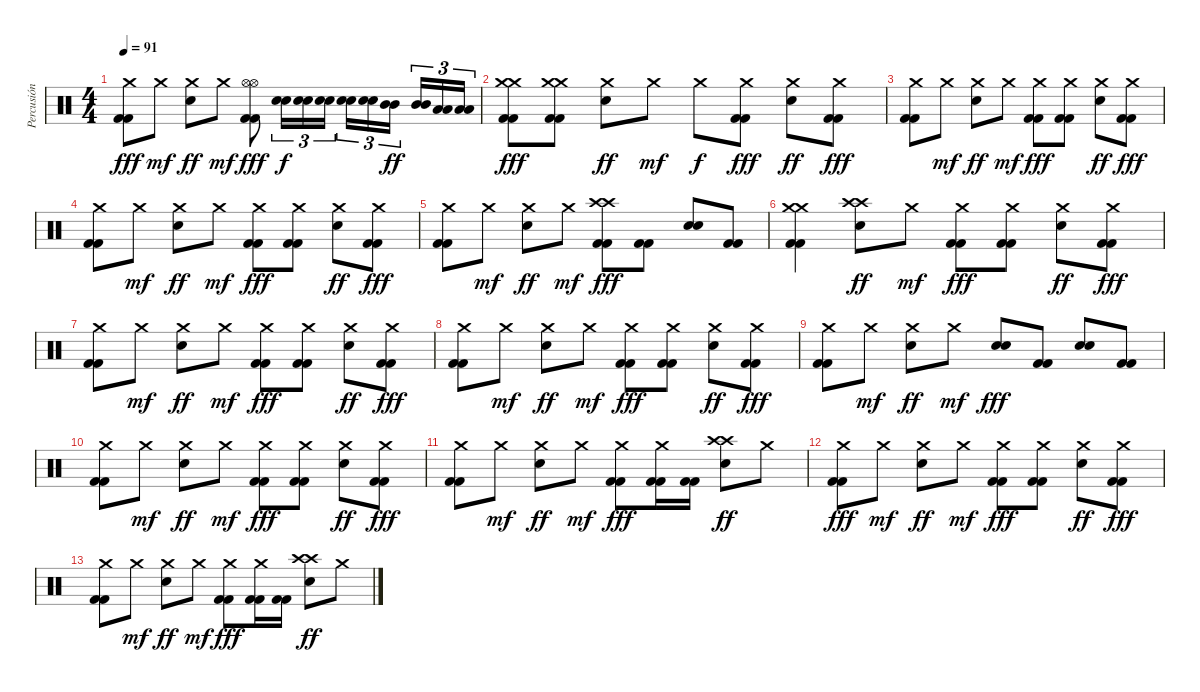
\track ("Percusión" "Percusión") {instrument percussion}
\staff {score}
\articulation defaults
\ts (4 4)
\tempo 91
\clef neutral
\ks c
("Crash medium (hit)" "Kick (hit) 2" "Kick (hit) 2").8{dy fff} "Crash medium (hit)".8{dy mf} ("Crash medium (hit)" "Electric Snare (hit)").8{dy ff} "Crash medium (hit)".8{dy mf} ("Hi-Hat (open)" "Hi-Hat (open)" "Kick (hit) 2" "Kick (hit) 2").8{dy fff} ("Electric Snare (hit)" "Electric Snare (hit)").16{tu (3 2) dy f} ("Electric Snare (hit)" "Electric Snare (hit)").16{tu (3 2)} ("Electric Snare (hit)" "Electric Snare (hit)").16{tu (3 2)} ("Electric Snare (hit)" "Electric Snare (hit)").16{tu (3 2)} ("Electric Snare (hit)" "Electric Snare (hit)").16{tu (3 2)} ("Mid Tom (hit)" "Mid Tom (hit)").16{tu (3 2) dy ff beam splitsecondary} ("Mid Tom (hit)" "Mid Tom (hit)").16{tu (3 2)} ("Low Tom (hit)" "Low Tom (hit)").16{tu (3 2)} ("Low Tom (hit)" "Low Tom (hit)").16{tu (3 2)} |
("Crash medium (hit)" "Crash medium (hit)" "Kick (hit) 2" "Kick (hit) 2").8{dy fff} ("Crash medium (hit)" "Crash medium (hit)" "Kick (hit) 2" "Kick (hit) 2").8 ("Crash medium (hit)" "Electric Snare (hit)").8{dy ff} "Crash medium (hit)".8{dy mf} "Crash medium (hit)".8{dy f} ("Crash medium (hit)" "Kick (hit) 2" "Kick (hit) 2").8{dy fff} ("Crash medium (hit)" "Electric Snare (hit)").8{dy ff} ("Crash medium (hit)" "Kick (hit) 2" "Kick (hit) 2").8{dy fff} |
("Crash medium (hit)" "Kick (hit) 2" "Kick (hit) 2").8 "Crash medium (hit)".8{dy mf} ("Crash medium (hit)" "Electric Snare (hit)").8{dy ff} "Crash medium (hit)".8{dy mf} ("Crash medium (hit)" "Kick (hit) 2" "Kick (hit) 2").8{dy fff} ("Crash medium (hit)" "Kick (hit) 2" "Kick (hit) 2").8 ("Crash medium (hit)" "Electric Snare (hit)").8{dy ff} ("Crash medium (hit)" "Kick (hit) 2" "Kick (hit) 2").8{dy fff} |
("Crash medium (hit)" "Kick (hit) 2" "Kick (hit) 2").8 "Crash medium (hit)".8{dy mf} ("Crash medium (hit)" "Electric Snare (hit)").8{dy ff} "Crash medium (hit)".8{dy mf} ("Crash medium (hit)" "Kick (hit) 2" "Kick (hit) 2").8{dy fff} ("Crash medium (hit)" "Kick (hit) 2" "Kick (hit) 2").8 ("Crash medium (hit)" "Electric Snare (hit)").8{dy ff} ("Crash medium (hit)" "Kick (hit) 2" "Kick (hit) 2").8{dy fff} |
("Crash medium (hit)" "Kick (hit) 2" "Kick (hit) 2").8 "Crash medium (hit)".8{dy mf} ("Crash medium (hit)" "Electric Snare (hit)").8{dy ff} "Crash medium (hit)".8{dy mf} ("Crash high (hit)" "Crash high (hit)" "Kick (hit) 2" "Kick (hit) 2").8{dy fff} ("Kick (hit) 2" "Kick (hit) 2").8 ("Electric Snare (hit)" "Electric Snare (hit)").8 ("Kick (hit) 2" "Kick (hit) 2").8 |
("Crash medium (hit)" "Crash medium (hit)" "Kick (hit) 2" "Kick (hit) 2").4{volume 8} ("Crash high (hit)" "Crash high (hit)" "Electric Snare (hit)").8{dy ff} "Crash medium (hit)".8{dy mf} ("Crash medium (hit)" "Kick (hit) 2" "Kick (hit) 2").8{dy fff} ("Crash medium (hit)" "Kick (hit) 2" "Kick (hit) 2").8 ("Crash medium (hit)" "Electric Snare (hit)").8{dy ff} ("Crash medium (hit)" "Kick (hit) 2" "Kick (hit) 2").8{dy fff} |
("Crash medium (hit)" "Kick (hit) 2" "Kick (hit) 2").8 "Crash medium (hit)".8{dy mf} ("Crash medium (hit)" "Electric Snare (hit)").8{dy ff} "Crash medium (hit)".8{dy mf} ("Crash medium (hit)" "Kick (hit) 2" "Kick (hit) 2").8{dy fff} ("Crash medium (hit)" "Kick (hit) 2" "Kick (hit) 2").8 ("Crash medium (hit)" "Electric Snare (hit)").8{dy ff} ("Crash medium (hit)" "Kick (hit) 2" "Kick (hit) 2").8{dy fff} |
("Crash medium (hit)" "Kick (hit) 2" "Kick (hit) 2").8 "Crash medium (hit)".8{dy mf} ("Crash medium (hit)" "Electric Snare (hit)").8{dy ff} "Crash medium (hit)".8{dy mf} ("Crash medium (hit)" "Kick (hit) 2" "Kick (hit) 2").8{dy fff} ("Crash medium (hit)" "Kick (hit) 2" "Kick (hit) 2").8 ("Crash medium (hit)" "Electric Snare (hit)").8{dy ff} ("Crash medium (hit)" "Kick (hit) 2" "Kick (hit) 2").8{dy fff} |
("Crash medium (hit)" "Kick (hit) 2" "Kick (hit) 2").8 "Crash medium (hit)".8{dy mf} ("Crash medium (hit)" "Electric Snare (hit)").8{dy ff} "Crash medium (hit)".8{dy mf} ("Electric Snare (hit)" "Electric Snare (hit)").8{dy fff} ("Kick (hit) 2" "Kick (hit) 2").8 ("Electric Snare (hit)" "Electric Snare (hit)").8 ("Kick (hit) 2" "Kick (hit) 2").8 |
("Crash medium (hit)" "Kick (hit) 2" "Kick (hit) 2").8 "Crash medium (hit)".8{dy mf} ("Crash medium (hit)" "Electric Snare (hit)").8{dy ff} "Crash medium (hit)".8{dy mf} ("Crash medium (hit)" "Kick (hit) 2" "Kick (hit) 2").8{dy fff} ("Crash medium (hit)" "Kick (hit) 2" "Kick (hit) 2").8 ("Crash medium (hit)" "Electric Snare (hit)").8{dy ff} ("Crash medium (hit)" "Kick (hit) 2" "Kick (hit) 2").8{dy fff} |
("Crash medium (hit)" "Kick (hit) 2" "Kick (hit) 2").8 "Crash medium (hit)".8{dy mf} ("Crash medium (hit)" "Electric Snare (hit)").8{dy ff} "Crash medium (hit)".8{dy mf} ("Crash medium (hit)" "Kick (hit) 2" "Kick (hit) 2").8{dy fff} ("Crash medium (hit)" "Kick (hit) 2" "Kick (hit) 2").16 ("Kick (hit) 2" "Kick (hit) 2").16 ("Crash high (hit)" "Crash high (hit)" "Electric Snare (hit)").8{dy ff} "Crash medium (hit)".8 |
("Crash medium (hit)" "Kick (hit) 2" "Kick (hit) 2").8{dy fff volume 0} "Crash medium (hit)".8{dy mf} ("Crash medium (hit)" "Electric Snare (hit)").8{dy ff} "Crash medium (hit)".8{dy mf} ("Crash medium (hit)" "Kick (hit) 2" "Kick (hit) 2").8{dy fff} ("Crash medium (hit)" "Kick (hit) 2" "Kick (hit) 2").8 ("Crash medium (hit)" "Electric Snare (hit)").8{dy ff} ("Crash medium (hit)" "Kick (hit) 2" "Kick (hit) 2").8{dy fff} |
("Crash medium (hit)" "Kick (hit) 2" "Kick (hit) 2").8 "Crash medium (hit)".8{dy mf} ("Crash medium (hit)" "Electric Snare (hit)").8{dy ff} "Crash medium (hit)".8{dy mf} ("Crash medium (hit)" "Kick (hit) 2" "Kick (hit) 2").8{dy fff} ("Crash medium (hit)" "Kick (hit) 2" "Kick (hit) 2").16 ("Kick (hit) 2" "Kick (hit) 2").16 ("Crash high (hit)" "Crash high (hit)" "Electric Snare (hit)").8{dy ff} "Crash medium (hit)".8
